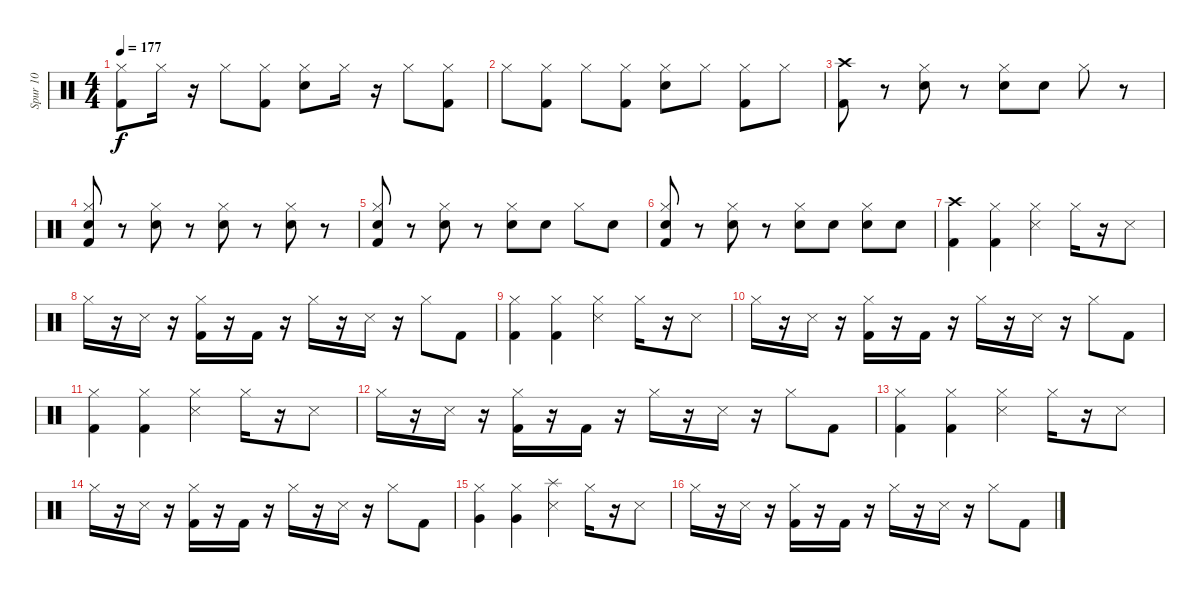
\track ("Spur 10" "Spur 10") {instrument percussion}
\staff {score}
\articulation defaults
\ts (4 4)
\tempo 177
\clef neutral
\ks c
("Kick (hit) 2" "Hi-Hat (closed)").8{dy f} "Hi-Hat (closed)".16 r.16 "Hi-Hat (closed)".8 ("Hi-Hat (closed)" "Kick (hit) 2").8 ("Electric Snare (hit)" "Hi-Hat (closed)").8 "Hi-Hat (closed)".16 r.16 "Hi-Hat (closed)".8 ("Kick (hit) 2" "Hi-Hat (closed)").8 |
"Hi-Hat (closed)".8 ("Kick (hit) 2" "Hi-Hat (closed)").8 "Hi-Hat (closed)".8 ("Hi-Hat (closed)" "Kick (hit) 2").8 ("Hi-Hat (closed)" "Electric Snare (hit)").8 "Hi-Hat (closed)".8 ("Kick (hit) 2" "Hi-Hat (closed)").8 "Hi-Hat (closed)".8 |
("Crash high (hit)" "Kick (hit) 2").8 r.8 ("Electric Snare (hit)" "Hi-Hat (closed)").8 r.8 ("Electric Snare (hit)" "Hi-Hat (closed)").8 "Electric Snare (hit)".8 "Hi-Hat (closed)".8 r.8 |
("Electric Snare (hit)" "Hi-Hat (closed)" "Kick (hit) 2").8 r.8 ("Electric Snare (hit)" "Hi-Hat (closed)").8 r.8 ("Hi-Hat (closed)" "Electric Snare (hit)").8 r.8 ("Hi-Hat (closed)" "Electric Snare (hit)").8 r.8 |
("Kick (hit) 2" "Hi-Hat (closed)" "Electric Snare (hit)").8 r.8 ("Hi-Hat (closed)" "Electric Snare (hit)").8 r.8 ("Hi-Hat (closed)" "Electric Snare (hit)").8 "Electric Snare (hit)".8 "Hi-Hat (closed)".8 "Electric Snare (hit)".8 |
("Kick (hit) 2" "Electric Snare (hit)" "Hi-Hat (closed)").8 r.8 ("Electric Snare (hit)" "Hi-Hat (closed)").8 r.8 ("Hi-Hat (closed)" "Electric Snare (hit)").8 "Electric Snare (hit)".8 ("Hi-Hat (closed)" "Electric Snare (hit)").8 "Electric Snare (hit)".8 |
("Crash high (hit)" "Kick (hit) 2").4 ("Hi-Hat (closed)" "Kick (hit) 2").4 ("Hi-Hat (closed)" "Metronome (hit)").4 "Hi-Hat (closed)".16 r.16 "Metronome (hit)".8 |
"Hi-Hat (closed)".16 r.16 "Metronome (hit)".16 r.16 ("Kick (hit) 2" "Hi-Hat (closed)").16 r.16 "Kick (hit) 2".16 r.16 "Hi-Hat (closed)".16 r.16 "Metronome (hit)".16 r.16 "Hi-Hat (closed)".8 "Kick (hit) 2".8 |
("Hi-Hat (closed)" "Kick (hit) 2").4 ("Hi-Hat (closed)" "Kick (hit) 2").4 ("Hi-Hat (closed)" "Metronome (hit)").4 "Hi-Hat (closed)".16 r.16 "Metronome (hit)".8 |
"Hi-Hat (closed)".16 r.16 "Metronome (hit)".16 r.16 ("Kick (hit) 2" "Hi-Hat (closed)").16 r.16 "Kick (hit) 2".16 r.16 "Hi-Hat (closed)".16 r.16 "Metronome (hit)".16 r.16 "Hi-Hat (closed)".8 "Kick (hit) 2".8 |
("Hi-Hat (closed)" "Kick (hit) 2").4 ("Hi-Hat (closed)" "Kick (hit) 2").4 ("Hi-Hat (closed)" "Metronome (hit)").4 "Hi-Hat (closed)".16 r.16 "Metronome (hit)".8 |
"Hi-Hat (closed)".16 r.16 "Metronome (hit)".16 r.16 ("Kick (hit) 2" "Hi-Hat (closed)").16 r.16 "Kick (hit) 2".16 r.16 "Hi-Hat (closed)".16 r.16 "Metronome (hit)".16 r.16 "Hi-Hat (closed)".8 "Kick (hit) 2".8 |
("Hi-Hat (closed)" "Kick (hit) 2").4 ("Hi-Hat (closed)" "Kick (hit) 2").4 ("Hi-Hat (closed)" "Metronome (hit)").4 "Hi-Hat (closed)".16 r.16 "Metronome (hit)".8 |
"Hi-Hat (closed)".16 r.16 "Metronome (hit)".16 r.16 ("Kick (hit) 2" "Hi-Hat (closed)").16 r.16 "Kick (hit) 2".16 r.16 "Hi-Hat (closed)".16 r.16 "Metronome (hit)".16 r.16 "Hi-Hat (closed)".8 "Kick (hit) 2".8 |
("Hi-Hat (closed)" "Very Low Tom (hit)").4 ("Hi-Hat (closed)" "Very Low Tom (hit)").4 ("Splash (hit)" "Metronome (hit)").4 "Hi-Hat (closed)".16 r.16 "Metronome (hit)".8 |
"Hi-Hat (closed)".16 r.16 "Metronome (hit)".16 r.16 ("Kick (hit) 2" "Hi-Hat (closed)").16 r.16 "Kick (hit) 2".16 r.16 "Hi-Hat (closed)".16 r.16 "Metronome (hit)".16 r.16 "Hi-Hat (closed)".8 "Kick (hit) 2".8
